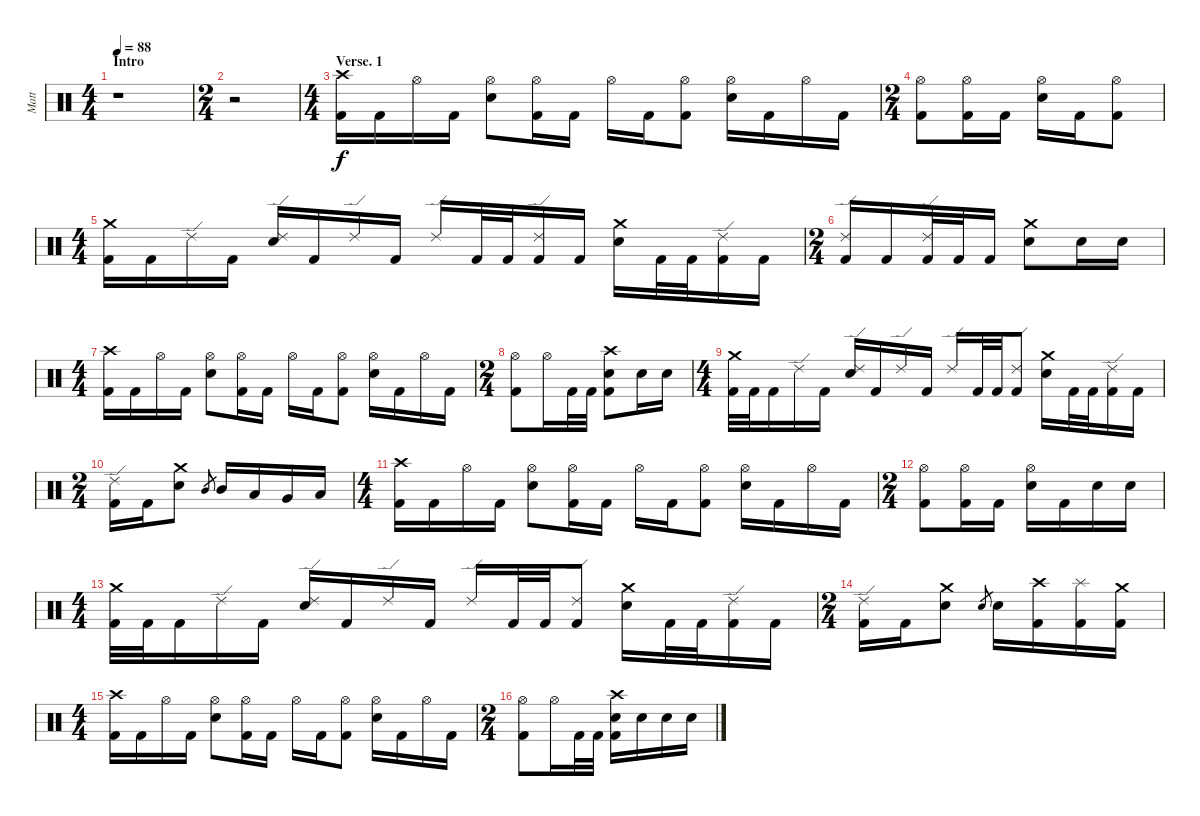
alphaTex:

\track ("Matt" "Matt") {instrument percussion}
\staff {score}
\articulation defaults
\ts (4 4)
\section ("" "Intro")
\tempo 88
\clef neutral
\ks c
r.1{dy f} |
\ts (2 4)
r.2 |
\ts (4 4)
\section ("" "Verse. 1")
("Crash high (hit)" "Kick (hit) 2").16 "Kick (hit) 2".16 "Hi-Hat (open)".16 "Kick (hit) 2".16 ("Hi-Hat (open)" "Electric Snare (hit)").8 ("Hi-Hat (open)" "Kick (hit) 2").16 "Kick (hit) 2".16 "Hi-Hat (open)".16 "Kick (hit) 2".16 ("Hi-Hat (open)" "Kick (hit) 2").8 ("Hi-Hat (open)" "Electric Snare (hit)").16 "Kick (hit) 2".16 "Hi-Hat (open)".16 "Kick (hit) 2".16 |
\ts (2 4)
("Hi-Hat (open)" "Kick (hit) 2").8 ("Hi-Hat (open)" "Kick (hit) 2").16 "Kick (hit) 2".16 ("Hi-Hat (open)" "Electric Snare (hit)").16 "Kick (hit) 2".16 ("Hi-Hat (open)" "Kick (hit) 2").8 |
\ts (4 4)
("Crash medium (hit)" "Kick (hit) 2").16 "Kick (hit) 2".16 "Ride (edge) 2".16 "Kick (hit) 2".16 ("Ride (edge) 2" "Electric Snare (hit)").16 "Kick (hit) 2".16 "Ride (edge) 2".16 "Kick (hit) 2".16 "Ride (edge) 2".16 "Kick (hit) 2".32 "Kick (hit) 2".32 ("Ride (edge) 2" "Kick (hit) 2").16 "Kick (hit) 2".16 ("Crash medium (hit)" "Electric Snare (hit)").16 "Kick (hit) 2".32 "Kick (hit) 2".32 ("Ride (edge) 2" "Kick (hit) 2").16 "Kick (hit) 2".16 |
\ts (2 4)
("Ride (edge) 2" "Kick (hit) 2").16 "Kick (hit) 2".16 ("Ride (edge) 2" "Kick (hit) 2").32 "Kick (hit) 2".32 "Kick (hit) 2".16 ("Crash medium (hit)" "Electric Snare (hit)").8 "Electric Snare (hit)".16 "Electric Snare (hit)".16 |
\ts (4 4)
("Crash high (hit)" "Kick (hit) 2").16 "Kick (hit) 2".16 "Hi-Hat (open)".16 "Kick (hit) 2".16 ("Hi-Hat (open)" "Electric Snare (hit)").8 ("Hi-Hat (open)" "Kick (hit) 2").16 "Kick (hit) 2".16 "Hi-Hat (open)".16 "Kick (hit) 2".16 ("Hi-Hat (open)" "Kick (hit) 2").8 ("Hi-Hat (open)" "Electric Snare (hit)").16 "Kick (hit) 2".16 "Hi-Hat (open)".16 "Kick (hit) 2".16 |
\ts (2 4)
("Hi-Hat (open)" "Kick (hit) 2").8 "Hi-Hat (open)".16 "Kick (hit) 2".32 "Kick (hit) 2".32 ("Crash high (hit)" "Electric Snare (hit)" "Kick (hit) 2").8 "Electric Snare (hit)".16 "Electric Snare (hit)".16 |
\ts (4 4)
("Crash medium (hit)" "Kick (hit) 2").32 "Kick (hit) 2".32 "Kick (hit) 2".16 "Ride (edge) 2".16 "Kick (hit) 2".16 ("Ride (edge) 2" "Electric Snare (hit)").16 "Kick (hit) 2".16 "Ride (edge) 2".16 "Kick (hit) 2".16 "Ride (edge) 2".16 "Kick (hit) 2".32 "Kick (hit) 2".32 ("Ride (edge) 2" "Kick (hit) 2").8 ("Crash medium (hit)" "Electric Snare (hit)").16 "Kick (hit) 2".32 "Kick (hit) 2".32 ("Ride (edge) 2" "Kick (hit) 2").16 "Kick (hit) 2".16 |
\ts (2 4)
("Ride (edge) 2" "Kick (hit) 2").16 "Kick (hit) 2".16 ("Crash medium (hit)" "Electric Snare (hit)").8 "Mid Tom (hit)".8{gr} "Mid Tom (hit)".16 "Low Tom (hit)".16 "Very Low Tom (hit)".16 "Low Floor Tom (hit)".16 |
\ts (4 4)
("Crash high (hit)" "Kick (hit) 2").16 "Kick (hit) 2".16 "Hi-Hat (open)".16 "Kick (hit) 2".16 ("Hi-Hat (open)" "Electric Snare (hit)").8 ("Hi-Hat (open)" "Kick (hit) 2").16 "Kick (hit) 2".16 "Hi-Hat (open)".16 "Kick (hit) 2".16 ("Hi-Hat (open)" "Kick (hit) 2").8 ("Hi-Hat (open)" "Electric Snare (hit)").16 "Kick (hit) 2".16 "Hi-Hat (open)".16 "Kick (hit) 2".16 |
\ts (2 4)
("Hi-Hat (open)" "Kick (hit) 2").8 ("Hi-Hat (open)" "Kick (hit) 2").16 "Kick (hit) 2".16 ("Hi-Hat (open)" "Electric Snare (hit)").16 "Kick (hit) 2".16 "Electric Snare (hit)".16 "Electric Snare (hit)".16 |
\ts (4 4)
("Crash medium (hit)" "Kick (hit) 2").32 "Kick (hit) 2".32 "Kick (hit) 2".16 "Ride (edge) 2".16 "Kick (hit) 2".16 ("Ride (edge) 2" "Electric Snare (hit)").16 "Kick (hit) 2".16 "Ride (edge) 2".16 "Kick (hit) 2".16 "Ride (edge) 2".16 "Kick (hit) 2".32 "Kick (hit) 2".32 ("Ride (edge) 2" "Kick (hit) 2").8 ("Crash medium (hit)" "Electric Snare (hit)").16 "Kick (hit) 2".32 "Kick (hit) 2".32 ("Ride (edge) 2" "Kick (hit) 2").16 "Kick (hit) 2".16 |
\ts (2 4)
("Ride (edge) 2" "Kick (hit) 2").16 "Kick (hit) 2".16 ("Crash medium (hit)" "Electric Snare (hit)").8 "Electric Snare (hit)".8{gr} "Electric Snare (hit)".16 ("Crash high (hit)" "Kick (hit) 2").16 ("Splash (hit)" "Kick (hit) 2").16 ("Crash medium (hit)" "Kick (hit) 2").16 |
\ts (4 4)
("Crash high (hit)" "Kick (hit) 2").16 "Kick (hit) 2".16 "Hi-Hat (open)".16 "Kick (hit) 2".16 ("Hi-Hat (open)" "Electric Snare (hit)").8 ("Hi-Hat (open)" "Kick (hit) 2").16 "Kick (hit) 2".16 "Hi-Hat (open)".16 "Kick (hit) 2".16 ("Hi-Hat (open)" "Kick (hit) 2").8 ("Hi-Hat (open)" "Electric Snare (hit)").16 "Kick (hit) 2".16 "Hi-Hat (open)".16 "Kick (hit) 2".16 |
\ts (2 4)
("Hi-Hat (open)" "Kick (hit) 2").8 "Hi-Hat (open)".16 "Kick (hit) 2".32 "Kick (hit) 2".32 ("Crash high (hit)" "Electric Snare (hit)" "Kick (hit) 2").16 "Electric Snare (hit)".16 "Electric Snare (hit)".16 "Electric Snare (hit)".16
